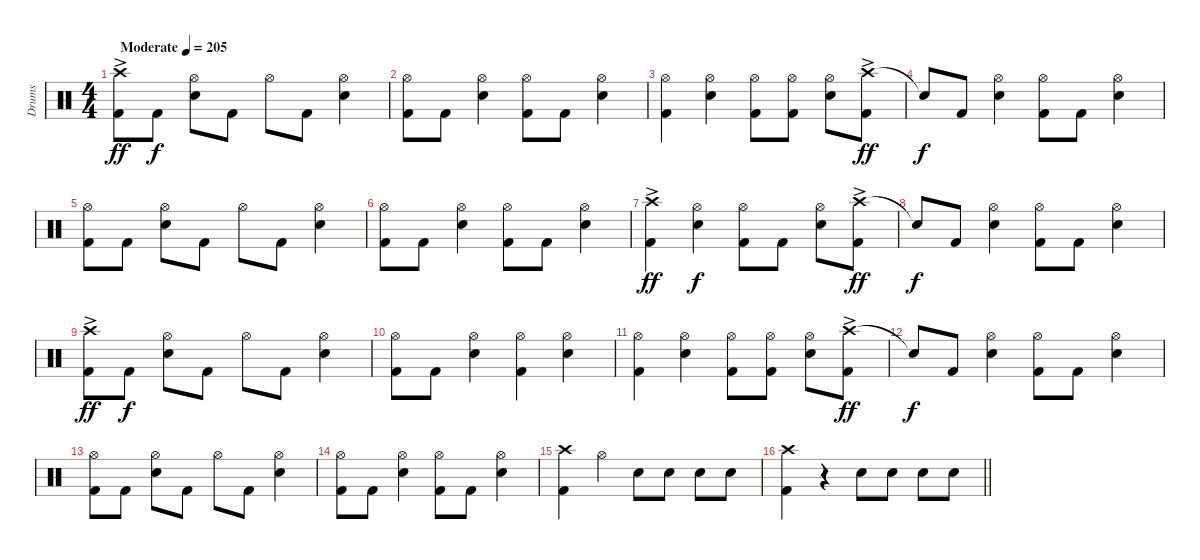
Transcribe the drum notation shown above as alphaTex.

\track ("Drums" "Drums") {instrument percussion}
\staff {score}
\articulation defaults
\ts (4 4)
\tempo (205 "Moderate")
\clef neutral
\ks c
("Crash high (hit)"{ac} "Kick (hit) 2").8{dy ff} "Kick (hit) 2".8{dy f} ("Hi-Hat (open)" "Electric Snare (hit)").8 "Kick (hit) 2".8 "Hi-Hat (open)".8 "Kick (hit) 2".8 ("Hi-Hat (open)" "Electric Snare (hit)").4 |
("Hi-Hat (open)" "Kick (hit) 2").8 "Kick (hit) 2".8 ("Hi-Hat (open)" "Electric Snare (hit)").4 ("Hi-Hat (open)" "Kick (hit) 2").8 "Kick (hit) 2".8 ("Hi-Hat (open)" "Electric Snare (hit)").4 |
("Hi-Hat (open)" "Kick (hit) 2").4 ("Hi-Hat (open)" "Electric Snare (hit)").4 ("Hi-Hat (open)" "Kick (hit) 2").8 ("Hi-Hat (open)" "Kick (hit) 2").8 ("Hi-Hat (open)" "Electric Snare (hit)").8 ("Crash high (hit)"{ac} "Kick (hit) 2").8{dy ff} |
"Snare (hit)"{t}.8{dy f} "Kick (hit) 2".8 ("Hi-Hat (open)" "Electric Snare (hit)").4 ("Hi-Hat (open)" "Kick (hit) 2").8 "Kick (hit) 2".8 ("Hi-Hat (open)" "Electric Snare (hit)").4 |
("Hi-Hat (open)" "Kick (hit) 2").8 "Kick (hit) 2".8 ("Hi-Hat (open)" "Electric Snare (hit)").8 "Kick (hit) 2".8 "Hi-Hat (open)".8 "Kick (hit) 2".8 ("Hi-Hat (open)" "Electric Snare (hit)").4 |
("Hi-Hat (open)" "Kick (hit) 2").8 "Kick (hit) 2".8 ("Hi-Hat (open)" "Electric Snare (hit)").4 ("Hi-Hat (open)" "Kick (hit) 2").8 "Kick (hit) 2".8 ("Hi-Hat (open)" "Electric Snare (hit)").4 |
("Crash high (hit)"{ac} "Kick (hit) 2").4{dy ff} ("Hi-Hat (open)" "Electric Snare (hit)").4{dy f} ("Hi-Hat (open)" "Kick (hit) 2").8 "Kick (hit) 2".8 ("Hi-Hat (open)" "Electric Snare (hit)").8 ("Crash high (hit)"{ac} "Kick (hit) 2").8{dy ff} |
"Snare (hit)"{t}.8{dy f} "Kick (hit) 2".8 ("Hi-Hat (open)" "Electric Snare (hit)").4 ("Hi-Hat (open)" "Kick (hit) 2").8 "Kick (hit) 2".8 ("Hi-Hat (open)" "Electric Snare (hit)").4 |
("Crash high (hit)"{ac} "Kick (hit) 2").8{dy ff} "Kick (hit) 2".8{dy f} ("Hi-Hat (open)" "Electric Snare (hit)").8 "Kick (hit) 2".8 "Hi-Hat (open)".8 "Kick (hit) 2".8 ("Hi-Hat (open)" "Electric Snare (hit)").4 |
("Hi-Hat (open)" "Kick (hit) 2").8 "Kick (hit) 2".8 ("Hi-Hat (open)" "Electric Snare (hit)").4 ("Hi-Hat (open)" "Kick (hit) 2").4 ("Hi-Hat (open)" "Electric Snare (hit)").4 |
("Hi-Hat (open)" "Kick (hit) 2").4 ("Hi-Hat (open)" "Electric Snare (hit)").4 ("Hi-Hat (open)" "Kick (hit) 2").8 ("Hi-Hat (open)" "Kick (hit) 2").8 ("Hi-Hat (open)" "Electric Snare (hit)").8 ("Crash high (hit)"{ac} "Kick (hit) 2").8{dy ff} |
"Snare (hit)"{t}.8{dy f} "Kick (hit) 2".8 ("Hi-Hat (open)" "Electric Snare (hit)").4 ("Hi-Hat (open)" "Kick (hit) 2").8 "Kick (hit) 2".8 ("Hi-Hat (open)" "Electric Snare (hit)").4 |
("Hi-Hat (open)" "Kick (hit) 2").8 "Kick (hit) 2".8 ("Hi-Hat (open)" "Electric Snare (hit)").8 "Kick (hit) 2".8 "Hi-Hat (open)".8 "Kick (hit) 2".8 ("Hi-Hat (open)" "Electric Snare (hit)").4 |
("Hi-Hat (open)" "Kick (hit) 2").8 "Kick (hit) 2".8 ("Hi-Hat (open)" "Electric Snare (hit)").4 ("Hi-Hat (open)" "Kick (hit) 2").8 "Kick (hit) 2".8 ("Hi-Hat (open)" "Electric Snare (hit)").4 |
("Crash high (hit)" "Kick (hit) 2").4 "Hi-Hat (open)".4 "Electric Snare (hit)".8 "Electric Snare (hit)".8 "Electric Snare (hit)".8 "Electric Snare (hit)".8 |
\barLineRight lightlight
("Crash high (hit)" "Kick (hit) 2").4 r.4 "Electric Snare (hit)".8 "Electric Snare (hit)".8 "Electric Snare (hit)".8 "Electric Snare (hit)".8
